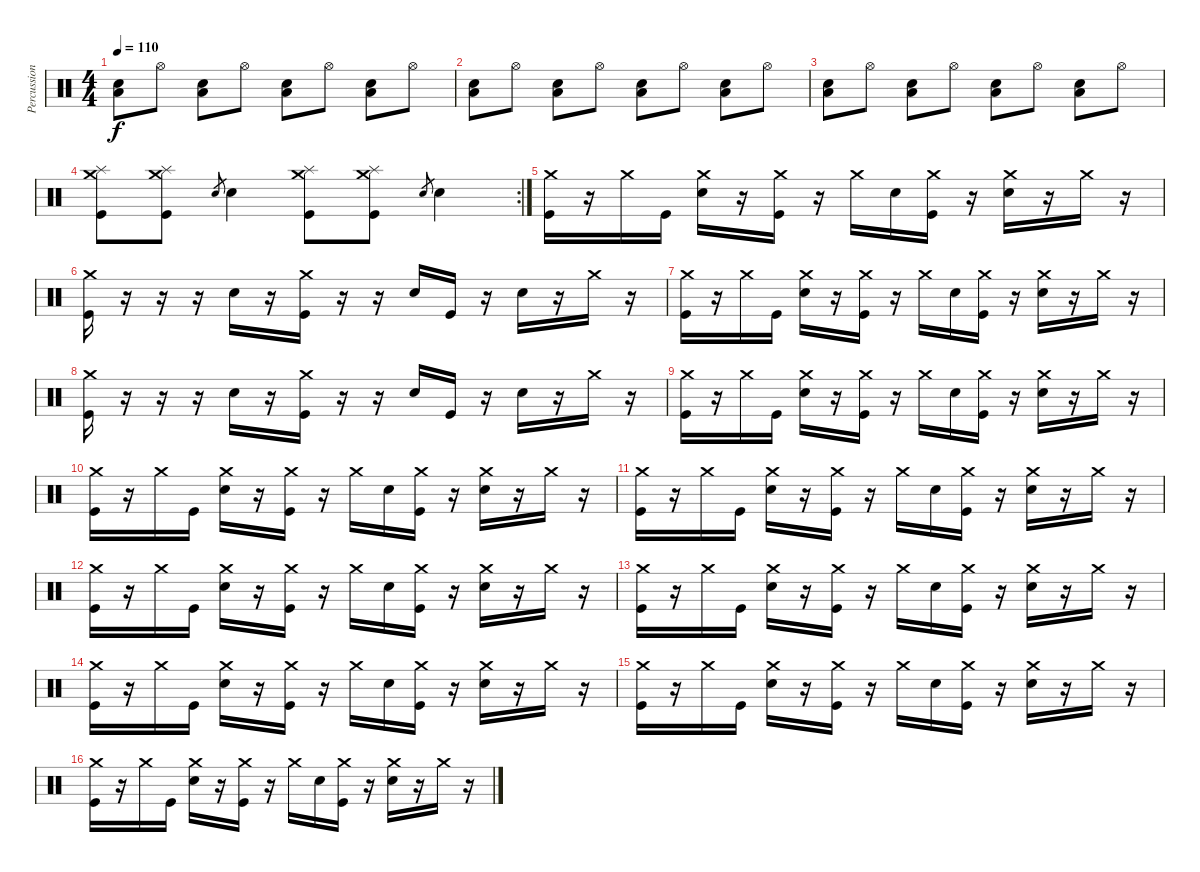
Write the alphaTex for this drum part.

\track ("Percussion" "Percussion") {instrument percussion}
\staff {score}
\articulation defaults
\ts (4 4)
\tempo 110
\clef neutral
\ks c
("Low Floor Tom (hit)" "Electric Snare (hit)").8{dy f} "Hi-Hat (open)".8 ("Electric Snare (hit)" "Low Floor Tom (hit)").8 "Hi-Hat (open)".8 ("Electric Snare (hit)" "Low Floor Tom (hit)").8 "Hi-Hat (open)".8 ("Electric Snare (hit)" "Low Floor Tom (hit)").8 "Hi-Hat (open)".8 |
("Low Floor Tom (hit)" "Electric Snare (hit)").8 "Hi-Hat (open)".8 ("Electric Snare (hit)" "Low Floor Tom (hit)").8 "Hi-Hat (open)".8 ("Electric Snare (hit)" "Low Floor Tom (hit)").8 "Hi-Hat (open)".8 ("Electric Snare (hit)" "Low Floor Tom (hit)").8 "Hi-Hat (open)".8 |
("Low Floor Tom (hit)" "Electric Snare (hit)").8 "Hi-Hat (open)".8 ("Electric Snare (hit)" "Low Floor Tom (hit)").8 "Hi-Hat (open)".8 ("Electric Snare (hit)" "Low Floor Tom (hit)").8 "Hi-Hat (open)".8 ("Electric Snare (hit)" "Low Floor Tom (hit)").8 "Hi-Hat (open)".8 |
\rc 2
("Splash (hit)" "Crash medium (hit)" "Kick (hit)").8 ("Splash (hit)" "Crash medium (hit)" "Kick (hit)").8 "Electric Snare (hit)".8{gr} "Electric Snare (hit)".4 ("Splash (hit)" "Crash medium (hit)" "Kick (hit)").8 ("Splash (hit)" "Crash medium (hit)" "Kick (hit)").8 "Electric Snare (hit)".8{gr} "Electric Snare (hit)".4 |
("Crash medium (hit)" "Kick (hit)").16 r.16 "Crash medium (hit)".16 "Kick (hit)".16 ("Crash medium (hit)" "Electric Snare (hit)").16 r.16 ("Crash medium (hit)" "Kick (hit)").16 r.16 "Crash medium (hit)".16 "Electric Snare (hit)".16 ("Crash medium (hit)" "Kick (hit)").16 r.16 ("Crash medium (hit)" "Electric Snare (hit)").16 r.16 "Crash medium (hit)".16 r.16 |
("Crash medium (hit)" "Kick (hit)").16 r.16 r.16 r.16 "Electric Snare (hit)".16 r.16 ("Crash medium (hit)" "Kick (hit)").16 r.16 r.16 "Electric Snare (hit)".16 "Kick (hit)".16 r.16 "Electric Snare (hit)".16 r.16 "Crash medium (hit)".16 r.16 |
("Crash medium (hit)" "Kick (hit)").16 r.16 "Crash medium (hit)".16 "Kick (hit)".16 ("Crash medium (hit)" "Electric Snare (hit)").16 r.16 ("Crash medium (hit)" "Kick (hit)").16 r.16 "Crash medium (hit)".16 "Electric Snare (hit)".16 ("Crash medium (hit)" "Kick (hit)").16 r.16 ("Crash medium (hit)" "Electric Snare (hit)").16 r.16 "Crash medium (hit)".16 r.16 |
("Crash medium (hit)" "Kick (hit)").16 r.16 r.16 r.16 "Electric Snare (hit)".16 r.16 ("Crash medium (hit)" "Kick (hit)").16 r.16 r.16 "Electric Snare (hit)".16 "Kick (hit)".16 r.16 "Electric Snare (hit)".16 r.16 "Crash medium (hit)".16 r.16 |
("Crash medium (hit)" "Kick (hit)").16 r.16 "Crash medium (hit)".16 "Kick (hit)".16 ("Crash medium (hit)" "Electric Snare (hit)").16 r.16 ("Crash medium (hit)" "Kick (hit)").16 r.16 "Crash medium (hit)".16 "Electric Snare (hit)".16 ("Crash medium (hit)" "Kick (hit)").16 r.16 ("Crash medium (hit)" "Electric Snare (hit)").16 r.16 "Crash medium (hit)".16 r.16 |
("Crash medium (hit)" "Kick (hit)").16 r.16 "Crash medium (hit)".16 "Kick (hit)".16 ("Crash medium (hit)" "Electric Snare (hit)").16 r.16 ("Crash medium (hit)" "Kick (hit)").16 r.16 "Crash medium (hit)".16 "Electric Snare (hit)".16 ("Crash medium (hit)" "Kick (hit)").16 r.16 ("Crash medium (hit)" "Electric Snare (hit)").16 r.16 "Crash medium (hit)".16 r.16 |
("Crash medium (hit)" "Kick (hit)").16 r.16 "Crash medium (hit)".16 "Kick (hit)".16 ("Crash medium (hit)" "Electric Snare (hit)").16 r.16 ("Crash medium (hit)" "Kick (hit)").16 r.16 "Crash medium (hit)".16 "Electric Snare (hit)".16 ("Crash medium (hit)" "Kick (hit)").16 r.16 ("Crash medium (hit)" "Electric Snare (hit)").16 r.16 "Crash medium (hit)".16 r.16 |
("Crash medium (hit)" "Kick (hit)").16 r.16 "Crash medium (hit)".16 "Kick (hit)".16 ("Crash medium (hit)" "Electric Snare (hit)").16 r.16 ("Crash medium (hit)" "Kick (hit)").16 r.16 "Crash medium (hit)".16 "Electric Snare (hit)".16 ("Crash medium (hit)" "Kick (hit)").16 r.16 ("Crash medium (hit)" "Electric Snare (hit)").16 r.16 "Crash medium (hit)".16 r.16 |
("Crash medium (hit)" "Kick (hit)").16 r.16 "Crash medium (hit)".16 "Kick (hit)".16 ("Crash medium (hit)" "Electric Snare (hit)").16 r.16 ("Crash medium (hit)" "Kick (hit)").16 r.16 "Crash medium (hit)".16 "Electric Snare (hit)".16 ("Crash medium (hit)" "Kick (hit)").16 r.16 ("Crash medium (hit)" "Electric Snare (hit)").16 r.16 "Crash medium (hit)".16 r.16 |
("Crash medium (hit)" "Kick (hit)").16 r.16 "Crash medium (hit)".16 "Kick (hit)".16 ("Crash medium (hit)" "Electric Snare (hit)").16 r.16 ("Crash medium (hit)" "Kick (hit)").16 r.16 "Crash medium (hit)".16 "Electric Snare (hit)".16 ("Crash medium (hit)" "Kick (hit)").16 r.16 ("Crash medium (hit)" "Electric Snare (hit)").16 r.16 "Crash medium (hit)".16 r.16 |
("Crash medium (hit)" "Kick (hit)").16 r.16 "Crash medium (hit)".16 "Kick (hit)".16 ("Crash medium (hit)" "Electric Snare (hit)").16 r.16 ("Crash medium (hit)" "Kick (hit)").16 r.16 "Crash medium (hit)".16 "Electric Snare (hit)".16 ("Crash medium (hit)" "Kick (hit)").16 r.16 ("Crash medium (hit)" "Electric Snare (hit)").16 r.16 "Crash medium (hit)".16 r.16 |
("Crash medium (hit)" "Kick (hit)").16 r.16 "Crash medium (hit)".16 "Kick (hit)".16 ("Crash medium (hit)" "Electric Snare (hit)").16 r.16 ("Crash medium (hit)" "Kick (hit)").16 r.16 "Crash medium (hit)".16 "Electric Snare (hit)".16 ("Crash medium (hit)" "Kick (hit)").16 r.16 ("Crash medium (hit)" "Electric Snare (hit)").16 r.16 "Crash medium (hit)".16 r.16
